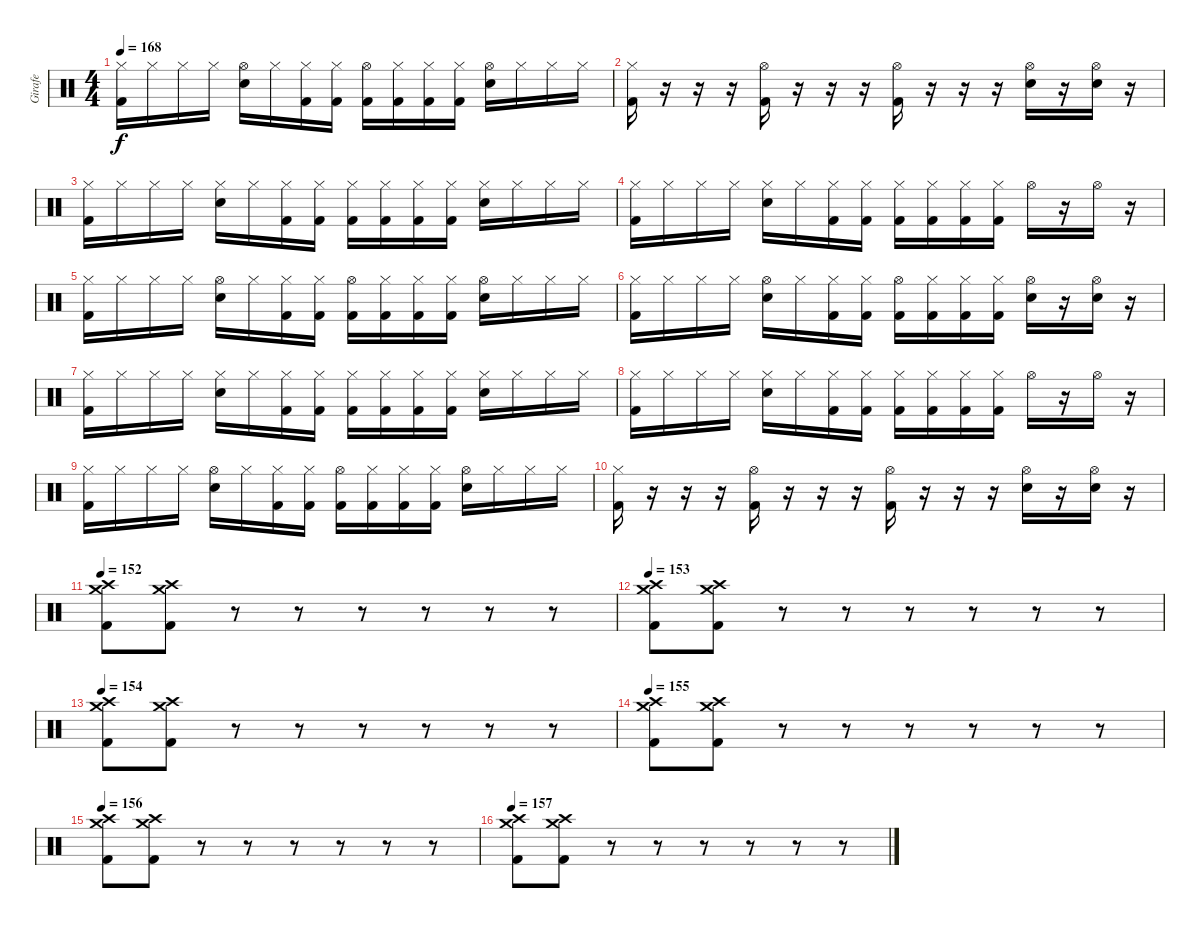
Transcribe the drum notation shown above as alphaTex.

\track ("Girafe" "Girafe") {instrument percussion}
\staff {score}
\articulation defaults
\ts (4 4)
\tempo 168
\clef neutral
\ks c
("Hi-Hat (closed)" "Kick (hit) 2").16{dy f} "Hi-Hat (closed)".16 "Hi-Hat (closed)".16 "Hi-Hat (closed)".16 ("Hi-Hat (open)" "Electric Snare (hit)").16 "Hi-Hat (closed)".16 ("Hi-Hat (closed)" "Kick (hit) 2").16 ("Hi-Hat (closed)" "Kick (hit) 2").16 ("Hi-Hat (open)" "Kick (hit) 2").16 ("Hi-Hat (closed)" "Kick (hit) 2").16 ("Hi-Hat (closed)" "Kick (hit) 2").16 ("Hi-Hat (closed)" "Kick (hit) 2").16 ("Hi-Hat (open)" "Electric Snare (hit)").16 "Hi-Hat (closed)".16 "Hi-Hat (closed)".16 "Hi-Hat (closed)".16 |
("Hi-Hat (closed)" "Kick (hit) 2").16 r.16 r.16 r.16 ("Hi-Hat (open)" "Kick (hit) 2").16 r.16 r.16 r.16 ("Hi-Hat (open)" "Kick (hit) 2").16 r.16 r.16 r.16 ("Hi-Hat (open)" "Electric Snare (hit)").16 r.16 ("Hi-Hat (open)" "Electric Snare (hit)").16 r.16 |
("Hi-Hat (closed)" "Kick (hit) 2").16 "Hi-Hat (closed)".16 "Hi-Hat (closed)".16 "Hi-Hat (closed)".16 ("Hi-Hat (closed)" "Electric Snare (hit)").16 "Hi-Hat (closed)".16 ("Hi-Hat (closed)" "Kick (hit) 2").16 ("Hi-Hat (closed)" "Kick (hit) 2").16 ("Hi-Hat (closed)" "Kick (hit) 2").16 ("Hi-Hat (closed)" "Kick (hit) 2").16 ("Hi-Hat (closed)" "Kick (hit) 2").16 ("Hi-Hat (closed)" "Kick (hit) 2").16 ("Hi-Hat (closed)" "Electric Snare (hit)").16 "Hi-Hat (closed)".16 "Hi-Hat (closed)".16 "Hi-Hat (closed)".16 |
("Hi-Hat (closed)" "Kick (hit) 2").16 "Hi-Hat (closed)".16 "Hi-Hat (closed)".16 "Hi-Hat (closed)".16 ("Hi-Hat (closed)" "Electric Snare (hit)").16 "Hi-Hat (closed)".16 ("Hi-Hat (closed)" "Kick (hit) 2").16 ("Hi-Hat (closed)" "Kick (hit) 2").16 ("Hi-Hat (closed)" "Kick (hit) 2").16 ("Hi-Hat (closed)" "Kick (hit) 2").16 ("Hi-Hat (closed)" "Kick (hit) 2").16 ("Hi-Hat (closed)" "Kick (hit) 2").16 "Hi-Hat (open)".16 r.16 "Hi-Hat (open)".16 r.16 |
("Hi-Hat (closed)" "Kick (hit) 2").16 "Hi-Hat (closed)".16 "Hi-Hat (closed)".16 "Hi-Hat (closed)".16 ("Hi-Hat (open)" "Electric Snare (hit)").16 "Hi-Hat (closed)".16 ("Hi-Hat (closed)" "Kick (hit) 2").16 ("Hi-Hat (closed)" "Kick (hit) 2").16 ("Hi-Hat (open)" "Kick (hit) 2").16 ("Hi-Hat (closed)" "Kick (hit) 2").16 ("Hi-Hat (closed)" "Kick (hit) 2").16 ("Hi-Hat (closed)" "Kick (hit) 2").16 ("Hi-Hat (open)" "Electric Snare (hit)").16 "Hi-Hat (closed)".16 "Hi-Hat (closed)".16 "Hi-Hat (closed)".16 |
("Hi-Hat (closed)" "Kick (hit) 2").16 "Hi-Hat (closed)".16 "Hi-Hat (closed)".16 "Hi-Hat (closed)".16 ("Hi-Hat (open)" "Electric Snare (hit)").16 "Hi-Hat (closed)".16 ("Hi-Hat (closed)" "Kick (hit) 2").16 ("Hi-Hat (closed)" "Kick (hit) 2").16 ("Hi-Hat (open)" "Kick (hit) 2").16 ("Hi-Hat (closed)" "Kick (hit) 2").16 ("Hi-Hat (closed)" "Kick (hit) 2").16 ("Hi-Hat (closed)" "Kick (hit) 2").16 ("Hi-Hat (open)" "Electric Snare (hit)").16 r.16 ("Hi-Hat (open)" "Electric Snare (hit)").16 r.16 |
("Hi-Hat (closed)" "Kick (hit) 2").16 "Hi-Hat (closed)".16 "Hi-Hat (closed)".16 "Hi-Hat (closed)".16 ("Hi-Hat (closed)" "Electric Snare (hit)").16 "Hi-Hat (closed)".16 ("Hi-Hat (closed)" "Kick (hit) 2").16 ("Hi-Hat (closed)" "Kick (hit) 2").16 ("Hi-Hat (closed)" "Kick (hit) 2").16 ("Hi-Hat (closed)" "Kick (hit) 2").16 ("Hi-Hat (closed)" "Kick (hit) 2").16 ("Hi-Hat (closed)" "Kick (hit) 2").16 ("Hi-Hat (closed)" "Electric Snare (hit)").16 "Hi-Hat (closed)".16 "Hi-Hat (closed)".16 "Hi-Hat (closed)".16 |
("Hi-Hat (closed)" "Kick (hit) 2").16 "Hi-Hat (closed)".16 "Hi-Hat (closed)".16 "Hi-Hat (closed)".16 ("Hi-Hat (closed)" "Electric Snare (hit)").16 "Hi-Hat (closed)".16 ("Hi-Hat (closed)" "Kick (hit) 2").16 ("Hi-Hat (closed)" "Kick (hit) 2").16 ("Hi-Hat (closed)" "Kick (hit) 2").16 ("Hi-Hat (closed)" "Kick (hit) 2").16 ("Hi-Hat (closed)" "Kick (hit) 2").16 ("Hi-Hat (closed)" "Kick (hit) 2").16 "Hi-Hat (open)".16 r.16 "Hi-Hat (open)".16 r.16 |
("Hi-Hat (closed)" "Kick (hit) 2").16 "Hi-Hat (closed)".16 "Hi-Hat (closed)".16 "Hi-Hat (closed)".16 ("Hi-Hat (open)" "Electric Snare (hit)").16 "Hi-Hat (closed)".16 ("Hi-Hat (closed)" "Kick (hit) 2").16 ("Hi-Hat (closed)" "Kick (hit) 2").16 ("Hi-Hat (open)" "Kick (hit) 2").16 ("Hi-Hat (closed)" "Kick (hit) 2").16 ("Hi-Hat (closed)" "Kick (hit) 2").16 ("Hi-Hat (closed)" "Kick (hit) 2").16 ("Hi-Hat (open)" "Electric Snare (hit)").16 "Hi-Hat (closed)".16 "Hi-Hat (closed)".16 "Hi-Hat (closed)".16 |
("Hi-Hat (closed)" "Kick (hit) 2").16 r.16 r.16 r.16 ("Hi-Hat (open)" "Kick (hit) 2").16 r.16 r.16 r.16 ("Hi-Hat (open)" "Kick (hit) 2").16 r.16 r.16 r.16 ("Hi-Hat (open)" "Electric Snare (hit)").16 r.16 ("Hi-Hat (open)" "Electric Snare (hit)").16 r.16 |
\tempo 152
("Crash high (hit)" "Crash medium (hit)" "Kick (hit) 2").8 ("Crash high (hit)" "Crash medium (hit)" "Kick (hit) 2").8 r.8 r.8 r.8 r.8 r.8 r.8 |
\tempo 153
("Crash high (hit)" "Crash medium (hit)" "Kick (hit) 2").8 ("Crash high (hit)" "Crash medium (hit)" "Kick (hit) 2").8 r.8 r.8 r.8 r.8 r.8 r.8 |
\tempo 154
("Crash high (hit)" "Crash medium (hit)" "Kick (hit) 2").8 ("Crash high (hit)" "Crash medium (hit)" "Kick (hit) 2").8 r.8 r.8 r.8 r.8 r.8 r.8 |
\tempo 155
("Crash high (hit)" "Crash medium (hit)" "Kick (hit) 2").8 ("Crash high (hit)" "Crash medium (hit)" "Kick (hit) 2").8 r.8 r.8 r.8 r.8 r.8 r.8 |
\tempo 156
("Crash high (hit)" "Crash medium (hit)" "Kick (hit) 2").8 ("Crash high (hit)" "Crash medium (hit)" "Kick (hit) 2").8 r.8 r.8 r.8 r.8 r.8 r.8 |
\tempo 157
("Crash high (hit)" "Crash medium (hit)" "Kick (hit) 2").8 ("Crash high (hit)" "Crash medium (hit)" "Kick (hit) 2").8 r.8 r.8 r.8 r.8 r.8 r.8
